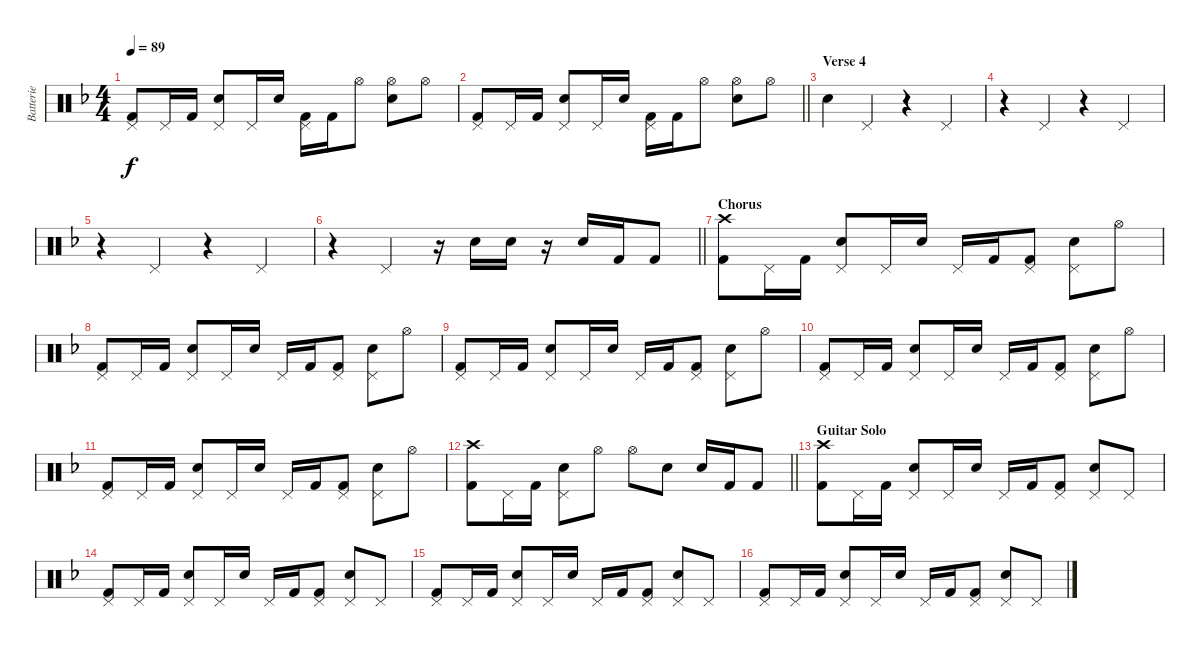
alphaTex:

\track ("Batterie" "Batterie") {instrument percussion}
\staff {score}
\articulation defaults
\ts (4 4)
\tempo 89
\clef neutral
\ks f
("Pedal Hi-Hat (hit)" "Kick (hit) 2").8{dy f} "Pedal Hi-Hat (hit)".16 "Kick (hit) 2".16 ("Pedal Hi-Hat (hit)" "Electric Snare (hit)").8 "Pedal Hi-Hat (hit)".16 "Electric Snare (hit)".16 ("Pedal Hi-Hat (hit)" "Kick (hit) 2").16 "Kick (hit) 2".16 "Hi-Hat (open)".8 ("Hi-Hat (open)" "Electric Snare (hit)").8 "Hi-Hat (open)".8 |
\barLineRight lightlight
("Pedal Hi-Hat (hit)" "Kick (hit) 2").8 "Pedal Hi-Hat (hit)".16 "Kick (hit) 2".16 ("Pedal Hi-Hat (hit)" "Electric Snare (hit)").8 "Pedal Hi-Hat (hit)".16 "Electric Snare (hit)".16 ("Pedal Hi-Hat (hit)" "Kick (hit) 2").16 "Kick (hit) 2".16 "Hi-Hat (open)".8 ("Hi-Hat (open)" "Electric Snare (hit)").8 "Hi-Hat (open)".8 |
\section ("" "Verse 4")
"Electric Snare (hit)".4 "Pedal Hi-Hat (hit)".4 r.4 "Pedal Hi-Hat (hit)".4 |
r.4 "Pedal Hi-Hat (hit)".4 r.4 "Pedal Hi-Hat (hit)".4 |
r.4 "Pedal Hi-Hat (hit)".4 r.4 "Pedal Hi-Hat (hit)".4 |
\barLineRight lightlight
r.4 "Pedal Hi-Hat (hit)".4 r.16 "Electric Snare (hit)".16 "Electric Snare (hit)".16 r.16 "Electric Snare (hit)".16 "Kick (hit) 2".16 "Kick (hit) 2".8 |
\section ("" "Chorus")
("Crash high (hit)" "Kick (hit) 2").8 "Pedal Hi-Hat (hit)".16 "Kick (hit) 2".16 ("Pedal Hi-Hat (hit)" "Electric Snare (hit)").8 "Pedal Hi-Hat (hit)".16 "Electric Snare (hit)".16 "Pedal Hi-Hat (hit)".16 "Kick (hit) 2".16 ("Pedal Hi-Hat (hit)" "Kick (hit) 2").8 ("Pedal Hi-Hat (hit)" "Electric Snare (hit)").8 "Hi-Hat (open)".8 |
("Pedal Hi-Hat (hit)" "Kick (hit) 2").8 "Pedal Hi-Hat (hit)".16 "Kick (hit) 2".16 ("Pedal Hi-Hat (hit)" "Electric Snare (hit)").8 "Pedal Hi-Hat (hit)".16 "Electric Snare (hit)".16 "Pedal Hi-Hat (hit)".16 "Kick (hit) 2".16 ("Pedal Hi-Hat (hit)" "Kick (hit) 2").8 ("Pedal Hi-Hat (hit)" "Electric Snare (hit)").8 "Hi-Hat (open)".8 |
("Pedal Hi-Hat (hit)" "Kick (hit) 2").8 "Pedal Hi-Hat (hit)".16 "Kick (hit) 2".16 ("Pedal Hi-Hat (hit)" "Electric Snare (hit)").8 "Pedal Hi-Hat (hit)".16 "Electric Snare (hit)".16 "Pedal Hi-Hat (hit)".16 "Kick (hit) 2".16 ("Pedal Hi-Hat (hit)" "Kick (hit) 2").8 ("Pedal Hi-Hat (hit)" "Electric Snare (hit)").8 "Hi-Hat (open)".8 |
("Pedal Hi-Hat (hit)" "Kick (hit) 2").8 "Pedal Hi-Hat (hit)".16 "Kick (hit) 2".16 ("Pedal Hi-Hat (hit)" "Electric Snare (hit)").8 "Pedal Hi-Hat (hit)".16 "Electric Snare (hit)".16 "Pedal Hi-Hat (hit)".16 "Kick (hit) 2".16 ("Pedal Hi-Hat (hit)" "Kick (hit) 2").8 ("Pedal Hi-Hat (hit)" "Electric Snare (hit)").8 "Hi-Hat (open)".8 |
("Pedal Hi-Hat (hit)" "Kick (hit) 2").8 "Pedal Hi-Hat (hit)".16 "Kick (hit) 2".16 ("Pedal Hi-Hat (hit)" "Electric Snare (hit)").8 "Pedal Hi-Hat (hit)".16 "Electric Snare (hit)".16 "Pedal Hi-Hat (hit)".16 "Kick (hit) 2".16 ("Pedal Hi-Hat (hit)" "Kick (hit) 2").8 ("Pedal Hi-Hat (hit)" "Electric Snare (hit)").8 "Hi-Hat (open)".8 |
\barLineRight lightlight
("Crash high (hit)" "Kick (hit) 2").8 "Pedal Hi-Hat (hit)".16 "Kick (hit) 2".16 ("Pedal Hi-Hat (hit)" "Electric Snare (hit)").8 "Hi-Hat (open)".8 "Hi-Hat (open)".8 "Electric Snare (hit)".8 "Electric Snare (hit)".16 "Kick (hit) 2".16 "Kick (hit) 2".8 |
\section ("" "Guitar Solo")
("Crash high (hit)" "Kick (hit) 2").8 "Pedal Hi-Hat (hit)".16 "Kick (hit) 2".16 ("Pedal Hi-Hat (hit)" "Electric Snare (hit)").8 "Pedal Hi-Hat (hit)".16 "Electric Snare (hit)".16 "Pedal Hi-Hat (hit)".16 "Kick (hit) 2".16 ("Pedal Hi-Hat (hit)" "Kick (hit) 2").8 ("Pedal Hi-Hat (hit)" "Electric Snare (hit)").8 "Pedal Hi-Hat (hit)".8 |
("Pedal Hi-Hat (hit)" "Kick (hit) 2").8 "Pedal Hi-Hat (hit)".16 "Kick (hit) 2".16 ("Pedal Hi-Hat (hit)" "Electric Snare (hit)").8 "Pedal Hi-Hat (hit)".16 "Electric Snare (hit)".16 "Pedal Hi-Hat (hit)".16 "Kick (hit) 2".16 ("Pedal Hi-Hat (hit)" "Kick (hit) 2").8 ("Pedal Hi-Hat (hit)" "Electric Snare (hit)").8 "Pedal Hi-Hat (hit)".8 |
("Pedal Hi-Hat (hit)" "Kick (hit) 2").8 "Pedal Hi-Hat (hit)".16 "Kick (hit) 2".16 ("Pedal Hi-Hat (hit)" "Electric Snare (hit)").8 "Pedal Hi-Hat (hit)".16 "Electric Snare (hit)".16 "Pedal Hi-Hat (hit)".16 "Kick (hit) 2".16 ("Pedal Hi-Hat (hit)" "Kick (hit) 2").8 ("Pedal Hi-Hat (hit)" "Electric Snare (hit)").8 "Pedal Hi-Hat (hit)".8 |
("Pedal Hi-Hat (hit)" "Kick (hit) 2").8 "Pedal Hi-Hat (hit)".16 "Kick (hit) 2".16 ("Pedal Hi-Hat (hit)" "Electric Snare (hit)").8 "Pedal Hi-Hat (hit)".16 "Electric Snare (hit)".16 "Pedal Hi-Hat (hit)".16 "Kick (hit) 2".16 ("Pedal Hi-Hat (hit)" "Kick (hit) 2").8 ("Pedal Hi-Hat (hit)" "Electric Snare (hit)").8 "Pedal Hi-Hat (hit)".8
